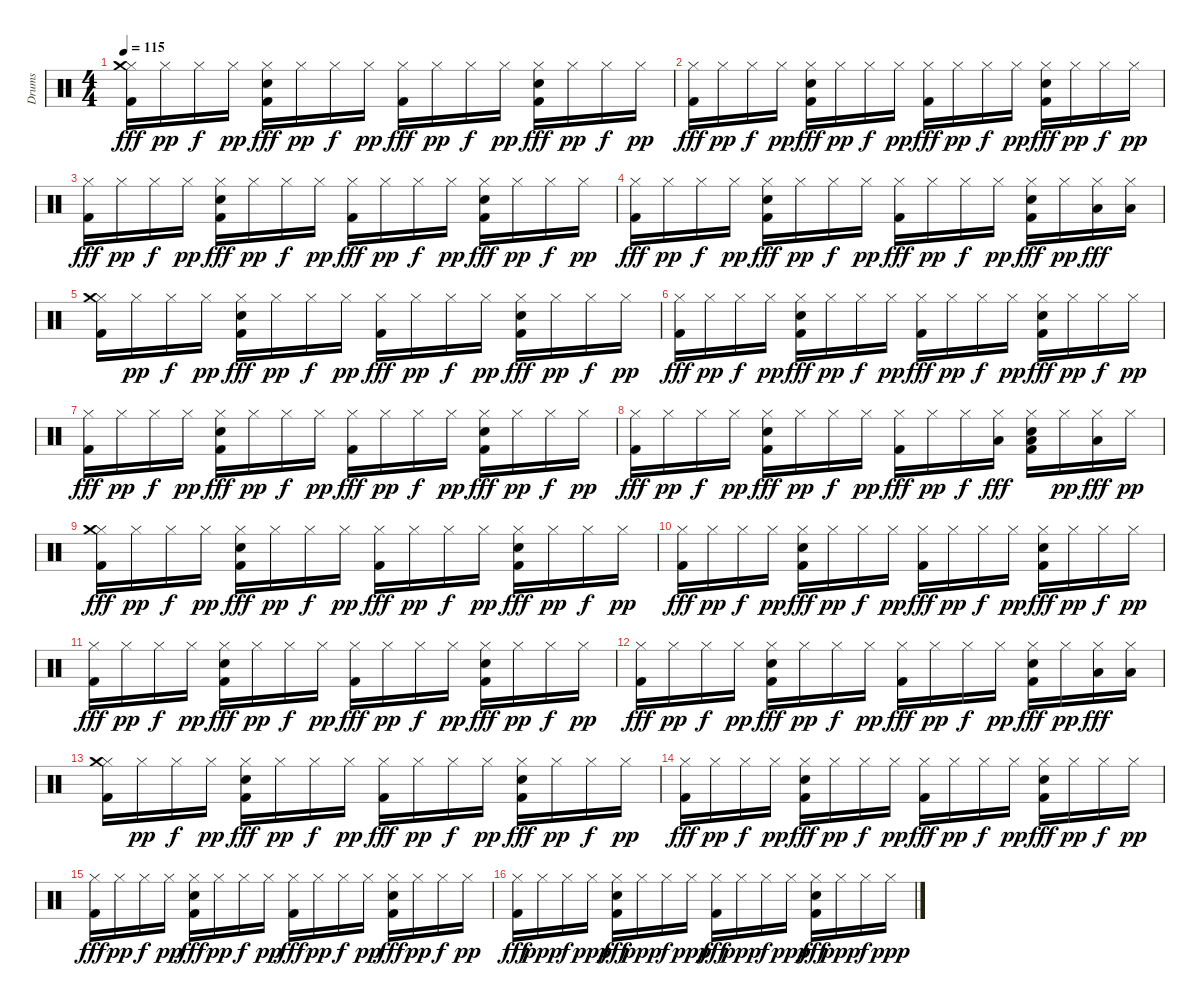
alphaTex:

\track ("Drums" "Drums") {instrument percussion}
\staff {score}
\articulation defaults
\ts (4 4)
\tempo 115
\clef neutral
\ks c
("Kick (hit) 2" "Hi-Hat (closed)" "Crash medium (hit)").16{dy fff} "Hi-Hat (closed)".16{dy pp} "Hi-Hat (closed)".16{dy f} "Hi-Hat (closed)".16{dy pp} ("Kick (hit) 2" "Snare (hit) 2" "Hi-Hat (closed)").16{dy fff} "Hi-Hat (closed)".16{dy pp} "Hi-Hat (closed)".16{dy f} "Hi-Hat (closed)".16{dy pp} ("Kick (hit) 2" "Hi-Hat (closed)").16{dy fff} "Hi-Hat (closed)".16{dy pp} "Hi-Hat (closed)".16{dy f} "Hi-Hat (closed)".16{dy pp} ("Kick (hit) 2" "Snare (hit) 2" "Hi-Hat (closed)").16{dy fff} "Hi-Hat (closed)".16{dy pp} "Hi-Hat (closed)".16{dy f} "Hi-Hat (closed)".16{dy pp} |
("Kick (hit) 2" "Hi-Hat (closed)").16{dy fff} "Hi-Hat (closed)".16{dy pp} "Hi-Hat (closed)".16{dy f} "Hi-Hat (closed)".16{dy pp} ("Kick (hit) 2" "Snare (hit) 2" "Hi-Hat (closed)").16{dy fff} "Hi-Hat (closed)".16{dy pp} "Hi-Hat (closed)".16{dy f} "Hi-Hat (closed)".16{dy pp} ("Kick (hit) 2" "Hi-Hat (closed)").16{dy fff} "Hi-Hat (closed)".16{dy pp} "Hi-Hat (closed)".16{dy f} "Hi-Hat (closed)".16{dy pp} ("Kick (hit) 2" "Snare (hit) 2" "Hi-Hat (closed)").16{dy fff} "Hi-Hat (closed)".16{dy pp} "Hi-Hat (closed)".16{dy f} "Hi-Hat (closed)".16{dy pp} |
("Kick (hit) 2" "Hi-Hat (closed)").16{dy fff} "Hi-Hat (closed)".16{dy pp} "Hi-Hat (closed)".16{dy f} "Hi-Hat (closed)".16{dy pp} ("Kick (hit) 2" "Snare (hit) 2" "Hi-Hat (closed)").16{dy fff} "Hi-Hat (closed)".16{dy pp} "Hi-Hat (closed)".16{dy f} "Hi-Hat (closed)".16{dy pp} ("Kick (hit) 2" "Hi-Hat (closed)").16{dy fff} "Hi-Hat (closed)".16{dy pp} "Hi-Hat (closed)".16{dy f} "Hi-Hat (closed)".16{dy pp} ("Kick (hit) 2" "Snare (hit) 2" "Hi-Hat (closed)").16{dy fff} "Hi-Hat (closed)".16{dy pp} "Hi-Hat (closed)".16{dy f} "Hi-Hat (closed)".16{dy pp} |
("Kick (hit) 2" "Hi-Hat (closed)").16{dy fff} "Hi-Hat (closed)".16{dy pp} "Hi-Hat (closed)".16{dy f} "Hi-Hat (closed)".16{dy pp} ("Kick (hit) 2" "Snare (hit) 2" "Hi-Hat (closed)").16{dy fff} "Hi-Hat (closed)".16{dy pp} "Hi-Hat (closed)".16{dy f} "Hi-Hat (closed)".16{dy pp} ("Kick (hit) 2" "Hi-Hat (closed)").16{dy fff} "Hi-Hat (closed)".16{dy pp} "Hi-Hat (closed)".16{dy f} "Hi-Hat (closed)".16{dy pp} ("Kick (hit) 2" "Snare (hit) 2" "Hi-Hat (closed)").16{dy fff} "Hi-Hat (closed)".16{dy pp} ("Hi-Hat (closed)" "Low Tom (hit)").16{dy fff} ("Hi-Hat (closed)" "Low Tom (hit)").16 |
("Kick (hit) 2" "Hi-Hat (closed)" "Crash medium (hit)").16 "Hi-Hat (closed)".16{dy pp} "Hi-Hat (closed)".16{dy f} "Hi-Hat (closed)".16{dy pp} ("Kick (hit) 2" "Snare (hit) 2" "Hi-Hat (closed)").16{dy fff} "Hi-Hat (closed)".16{dy pp} "Hi-Hat (closed)".16{dy f} "Hi-Hat (closed)".16{dy pp} ("Kick (hit) 2" "Hi-Hat (closed)").16{dy fff} "Hi-Hat (closed)".16{dy pp} "Hi-Hat (closed)".16{dy f} "Hi-Hat (closed)".16{dy pp} ("Kick (hit) 2" "Snare (hit) 2" "Hi-Hat (closed)").16{dy fff} "Hi-Hat (closed)".16{dy pp} "Hi-Hat (closed)".16{dy f} "Hi-Hat (closed)".16{dy pp} |
("Kick (hit) 2" "Hi-Hat (closed)").16{dy fff} "Hi-Hat (closed)".16{dy pp} "Hi-Hat (closed)".16{dy f} "Hi-Hat (closed)".16{dy pp} ("Kick (hit) 2" "Snare (hit) 2" "Hi-Hat (closed)").16{dy fff} "Hi-Hat (closed)".16{dy pp} "Hi-Hat (closed)".16{dy f} "Hi-Hat (closed)".16{dy pp} ("Kick (hit) 2" "Hi-Hat (closed)").16{dy fff} "Hi-Hat (closed)".16{dy pp} "Hi-Hat (closed)".16{dy f} "Hi-Hat (closed)".16{dy pp} ("Kick (hit) 2" "Snare (hit) 2" "Hi-Hat (closed)").16{dy fff} "Hi-Hat (closed)".16{dy pp} "Hi-Hat (closed)".16{dy f} "Hi-Hat (closed)".16{dy pp} |
("Kick (hit) 2" "Hi-Hat (closed)").16{dy fff} "Hi-Hat (closed)".16{dy pp} "Hi-Hat (closed)".16{dy f} "Hi-Hat (closed)".16{dy pp} ("Kick (hit) 2" "Snare (hit) 2" "Hi-Hat (closed)").16{dy fff} "Hi-Hat (closed)".16{dy pp} "Hi-Hat (closed)".16{dy f} "Hi-Hat (closed)".16{dy pp} ("Kick (hit) 2" "Hi-Hat (closed)").16{dy fff} "Hi-Hat (closed)".16{dy pp} "Hi-Hat (closed)".16{dy f} "Hi-Hat (closed)".16{dy pp} ("Kick (hit) 2" "Snare (hit) 2" "Hi-Hat (closed)").16{dy fff} "Hi-Hat (closed)".16{dy pp} "Hi-Hat (closed)".16{dy f} "Hi-Hat (closed)".16{dy pp} |
("Kick (hit) 2" "Hi-Hat (closed)").16{dy fff} "Hi-Hat (closed)".16{dy pp} "Hi-Hat (closed)".16{dy f} "Hi-Hat (closed)".16{dy pp} ("Kick (hit) 2" "Snare (hit) 2" "Hi-Hat (closed)").16{dy fff} "Hi-Hat (closed)".16{dy pp} "Hi-Hat (closed)".16{dy f} "Hi-Hat (closed)".16{dy pp} ("Kick (hit) 2" "Hi-Hat (closed)").16{dy fff} "Hi-Hat (closed)".16{dy pp} "Hi-Hat (closed)".16{dy f} ("Hi-Hat (closed)" "Low Tom (hit)").16{dy fff} ("Kick (hit) 2" "Snare (hit) 2" "Hi-Hat (closed)" "Low Tom (hit)").16 "Hi-Hat (closed)".16{dy pp} ("Low Floor Tom (hit)" "Hi-Hat (closed)").16{dy fff} "Hi-Hat (closed)".16{dy pp} |
("Kick (hit) 2" "Hi-Hat (closed)" "Crash medium (hit)").16{dy fff} "Hi-Hat (closed)".16{dy pp} "Hi-Hat (closed)".16{dy f} "Hi-Hat (closed)".16{dy pp} ("Kick (hit) 2" "Snare (hit) 2" "Hi-Hat (closed)").16{dy fff} "Hi-Hat (closed)".16{dy pp} "Hi-Hat (closed)".16{dy f} "Hi-Hat (closed)".16{dy pp} ("Kick (hit) 2" "Hi-Hat (closed)").16{dy fff} "Hi-Hat (closed)".16{dy pp} "Hi-Hat (closed)".16{dy f} "Hi-Hat (closed)".16{dy pp} ("Kick (hit) 2" "Snare (hit) 2" "Hi-Hat (closed)").16{dy fff} "Hi-Hat (closed)".16{dy pp} "Hi-Hat (closed)".16{dy f} "Hi-Hat (closed)".16{dy pp} |
("Kick (hit) 2" "Hi-Hat (closed)").16{dy fff} "Hi-Hat (closed)".16{dy pp} "Hi-Hat (closed)".16{dy f} "Hi-Hat (closed)".16{dy pp} ("Kick (hit) 2" "Snare (hit) 2" "Hi-Hat (closed)").16{dy fff} "Hi-Hat (closed)".16{dy pp} "Hi-Hat (closed)".16{dy f} "Hi-Hat (closed)".16{dy pp} ("Kick (hit) 2" "Hi-Hat (closed)").16{dy fff} "Hi-Hat (closed)".16{dy pp} "Hi-Hat (closed)".16{dy f} "Hi-Hat (closed)".16{dy pp} ("Kick (hit) 2" "Snare (hit) 2" "Hi-Hat (closed)").16{dy fff} "Hi-Hat (closed)".16{dy pp} "Hi-Hat (closed)".16{dy f} "Hi-Hat (closed)".16{dy pp} |
("Kick (hit) 2" "Hi-Hat (closed)").16{dy fff} "Hi-Hat (closed)".16{dy pp} "Hi-Hat (closed)".16{dy f} "Hi-Hat (closed)".16{dy pp} ("Kick (hit) 2" "Snare (hit) 2" "Hi-Hat (closed)").16{dy fff} "Hi-Hat (closed)".16{dy pp} "Hi-Hat (closed)".16{dy f} "Hi-Hat (closed)".16{dy pp} ("Kick (hit) 2" "Hi-Hat (closed)").16{dy fff} "Hi-Hat (closed)".16{dy pp} "Hi-Hat (closed)".16{dy f} "Hi-Hat (closed)".16{dy pp} ("Kick (hit) 2" "Snare (hit) 2" "Hi-Hat (closed)").16{dy fff} "Hi-Hat (closed)".16{dy pp} "Hi-Hat (closed)".16{dy f} "Hi-Hat (closed)".16{dy pp} |
("Kick (hit) 2" "Hi-Hat (closed)").16{dy fff} "Hi-Hat (closed)".16{dy pp} "Hi-Hat (closed)".16{dy f} "Hi-Hat (closed)".16{dy pp} ("Kick (hit) 2" "Snare (hit) 2" "Hi-Hat (closed)").16{dy fff} "Hi-Hat (closed)".16{dy pp} "Hi-Hat (closed)".16{dy f} "Hi-Hat (closed)".16{dy pp} ("Kick (hit) 2" "Hi-Hat (closed)").16{dy fff} "Hi-Hat (closed)".16{dy pp} "Hi-Hat (closed)".16{dy f} "Hi-Hat (closed)".16{dy pp} ("Kick (hit) 2" "Snare (hit) 2" "Hi-Hat (closed)").16{dy fff} "Hi-Hat (closed)".16{dy pp} ("Hi-Hat (closed)" "Low Tom (hit)").16{dy fff} ("Hi-Hat (closed)" "Low Tom (hit)").16 |
("Kick (hit) 2" "Hi-Hat (closed)" "Crash medium (hit)").16 "Hi-Hat (closed)".16{dy pp} "Hi-Hat (closed)".16{dy f} "Hi-Hat (closed)".16{dy pp} ("Kick (hit) 2" "Snare (hit) 2" "Hi-Hat (closed)").16{dy fff} "Hi-Hat (closed)".16{dy pp} "Hi-Hat (closed)".16{dy f} "Hi-Hat (closed)".16{dy pp} ("Kick (hit) 2" "Hi-Hat (closed)").16{dy fff} "Hi-Hat (closed)".16{dy pp} "Hi-Hat (closed)".16{dy f} "Hi-Hat (closed)".16{dy pp} ("Kick (hit) 2" "Snare (hit) 2" "Hi-Hat (closed)").16{dy fff} "Hi-Hat (closed)".16{dy pp} "Hi-Hat (closed)".16{dy f} "Hi-Hat (closed)".16{dy pp} |
("Kick (hit) 2" "Hi-Hat (closed)").16{dy fff} "Hi-Hat (closed)".16{dy pp} "Hi-Hat (closed)".16{dy f} "Hi-Hat (closed)".16{dy pp} ("Kick (hit) 2" "Snare (hit) 2" "Hi-Hat (closed)").16{dy fff} "Hi-Hat (closed)".16{dy pp} "Hi-Hat (closed)".16{dy f} "Hi-Hat (closed)".16{dy pp} ("Kick (hit) 2" "Hi-Hat (closed)").16{dy fff} "Hi-Hat (closed)".16{dy pp} "Hi-Hat (closed)".16{dy f} "Hi-Hat (closed)".16{dy pp} ("Kick (hit) 2" "Snare (hit) 2" "Hi-Hat (closed)").16{dy fff} "Hi-Hat (closed)".16{dy pp} "Hi-Hat (closed)".16{dy f} "Hi-Hat (closed)".16{dy pp} |
("Kick (hit) 2" "Hi-Hat (closed)").16{dy fff} "Hi-Hat (closed)".16{dy pp} "Hi-Hat (closed)".16{dy f} "Hi-Hat (closed)".16{dy pp} ("Kick (hit) 2" "Snare (hit) 2" "Hi-Hat (closed)").16{dy fff} "Hi-Hat (closed)".16{dy pp} "Hi-Hat (closed)".16{dy f} "Hi-Hat (closed)".16{dy pp} ("Kick (hit) 2" "Hi-Hat (closed)").16{dy fff} "Hi-Hat (closed)".16{dy pp} "Hi-Hat (closed)".16{dy f} "Hi-Hat (closed)".16{dy pp} ("Kick (hit) 2" "Snare (hit) 2" "Hi-Hat (closed)").16{dy fff} "Hi-Hat (closed)".16{dy pp} "Hi-Hat (closed)".16{dy f} "Hi-Hat (closed)".16{dy pp} |
("Kick (hit) 2" "Hi-Hat (closed)").16{dy fff} "Hi-Hat (closed)".16{dy ppp} "Hi-Hat (closed)".16{dy f} "Hi-Hat (closed)".16{dy ppp} ("Kick (hit) 2" "Snare (hit) 2" "Hi-Hat (closed)").16{dy fff} "Hi-Hat (closed)".16{dy ppp} "Hi-Hat (closed)".16{dy f} "Hi-Hat (closed)".16{dy ppp} ("Kick (hit) 2" "Hi-Hat (closed)").16{dy fff} "Hi-Hat (closed)".16{dy ppp} "Hi-Hat (closed)".16{dy f} "Hi-Hat (closed)".16{dy ppp} ("Kick (hit) 2" "Snare (hit) 2" "Hi-Hat (closed)").16{dy fff} "Hi-Hat (closed)".16{dy ppp} "Hi-Hat (closed)".16{dy f} "Hi-Hat (closed)".16{dy ppp}
